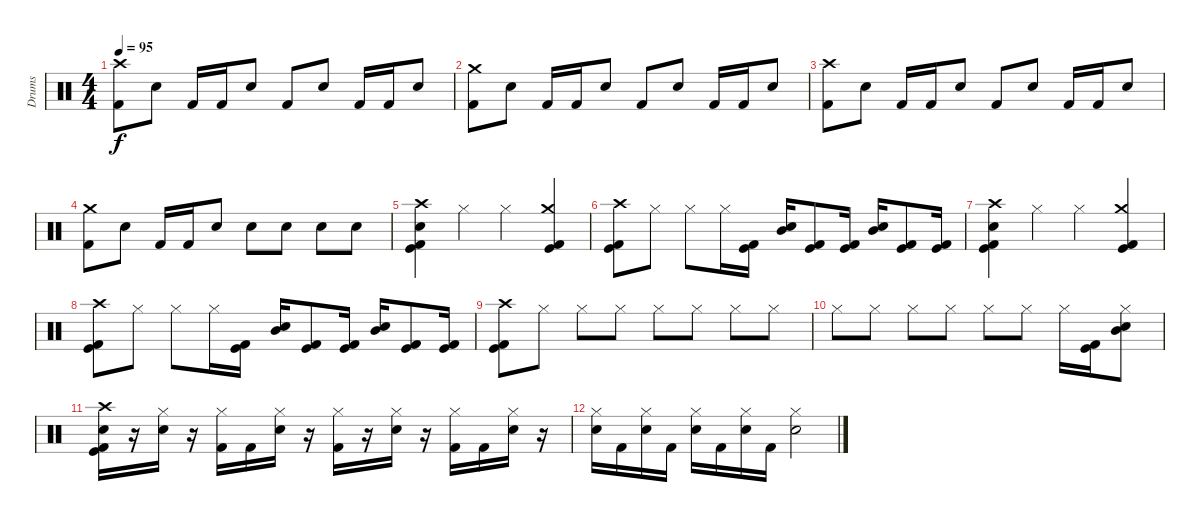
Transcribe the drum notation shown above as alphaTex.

\track ("Drums" "Drums") {instrument percussion}
\staff {score}
\articulation defaults
\ts (4 4)
\tempo 95
\clef neutral
\ks c
("Crash high (hit)" "Kick (hit) 2").8{dy f} "Electric Snare (hit)".8 "Kick (hit) 2".16 "Kick (hit) 2".16 "Electric Snare (hit)".8 "Kick (hit) 2".8 "Electric Snare (hit)".8 "Kick (hit) 2".16 "Kick (hit) 2".16 "Electric Snare (hit)".8 |
("Crash medium (hit)" "Kick (hit) 2").8 "Electric Snare (hit)".8 "Kick (hit) 2".16 "Kick (hit) 2".16 "Electric Snare (hit)".8 "Kick (hit) 2".8 "Electric Snare (hit)".8 "Kick (hit) 2".16 "Kick (hit) 2".16 "Electric Snare (hit)".8 |
("Crash high (hit)" "Kick (hit) 2").8 "Electric Snare (hit)".8 "Kick (hit) 2".16 "Kick (hit) 2".16 "Electric Snare (hit)".8 "Kick (hit) 2".8 "Electric Snare (hit)".8 "Kick (hit) 2".16 "Kick (hit) 2".16 "Electric Snare (hit)".8 |
("Crash medium (hit)" "Kick (hit) 2").8 "Electric Snare (hit)".8 "Kick (hit) 2".16 "Kick (hit) 2".16 "Electric Snare (hit)".8 "Electric Snare (hit)".8 "Electric Snare (hit)".8 "Electric Snare (hit)".8 "Electric Snare (hit)".8 |
("Crash high (hit)" "Electric Snare (hit)" "Kick (hit)" "Kick (hit) 2").4 "Hi-Hat (closed)".4 "Hi-Hat (closed)".4 ("Crash medium (hit)" "Kick (hit)" "Kick (hit) 2").4 |
("Crash high (hit)" "Kick (hit)" "Kick (hit) 2").8 "Hi-Hat (closed)".8 "Hi-Hat (closed)".8 "Hi-Hat (closed)".16 ("Kick (hit)" "Kick (hit) 2").16 ("Electric Snare (hit)" "Mid Tom (hit)").16 ("Kick (hit)" "Kick (hit) 2").8 ("Kick (hit)" "Kick (hit) 2").16 ("Electric Snare (hit)" "Mid Tom (hit)").16 ("Kick (hit)" "Kick (hit) 2").8 ("Kick (hit)" "Kick (hit) 2").16 |
("Crash high (hit)" "Electric Snare (hit)" "Kick (hit)" "Kick (hit) 2").4 "Hi-Hat (closed)".4 "Hi-Hat (closed)".4 ("Crash medium (hit)" "Kick (hit)" "Kick (hit) 2").4 |
("Crash high (hit)" "Kick (hit)" "Kick (hit) 2").8 "Hi-Hat (closed)".8 "Hi-Hat (closed)".8 "Hi-Hat (closed)".16 ("Kick (hit)" "Kick (hit) 2").16 ("Electric Snare (hit)" "Mid Tom (hit)").16 ("Kick (hit)" "Kick (hit) 2").8 ("Kick (hit)" "Kick (hit) 2").16 ("Electric Snare (hit)" "Mid Tom (hit)").16 ("Kick (hit)" "Kick (hit) 2").8 ("Kick (hit)" "Kick (hit) 2").16 |
("Crash high (hit)" "Kick (hit)" "Kick (hit) 2").8 "Hi-Hat (closed)".8 "Hi-Hat (closed)".8 "Hi-Hat (closed)".8 "Hi-Hat (closed)".8 "Hi-Hat (closed)".8 "Hi-Hat (closed)".8 "Hi-Hat (closed)".8 |
"Hi-Hat (closed)".8 "Hi-Hat (closed)".8 "Hi-Hat (closed)".8 "Hi-Hat (closed)".8 "Hi-Hat (closed)".8 "Hi-Hat (closed)".8 "Hi-Hat (closed)".16 ("Kick (hit)" "Kick (hit) 2").16 ("Hi-Hat (closed)" "Mid Tom (hit)" "Electric Snare (hit)").8 |
("Crash high (hit)" "Electric Snare (hit)" "Kick (hit)" "Kick (hit) 2").16 r.16 ("Hi-Hat (closed)" "Electric Snare (hit)").16 r.16 ("Hi-Hat (closed)" "Kick (hit) 2").16 "Kick (hit) 2".16 ("Hi-Hat (closed)" "Electric Snare (hit)").16 r.16 ("Hi-Hat (closed)" "Kick (hit) 2").16 r.16 ("Hi-Hat (closed)" "Electric Snare (hit)").16 r.16 ("Hi-Hat (closed)" "Kick (hit) 2").16 "Kick (hit) 2".16 ("Hi-Hat (closed)" "Electric Snare (hit)").16 r.16 |
("Hi-Hat (closed)" "Electric Snare (hit)").16 "Kick (hit) 2".16 ("Hi-Hat (closed)" "Electric Snare (hit)").16 "Kick (hit) 2".16 ("Hi-Hat (closed)" "Electric Snare (hit)").16 "Kick (hit) 2".16 ("Hi-Hat (closed)" "Electric Snare (hit)").16 "Kick (hit) 2".16 ("Hi-Hat (closed)" "Electric Snare (hit)").2
